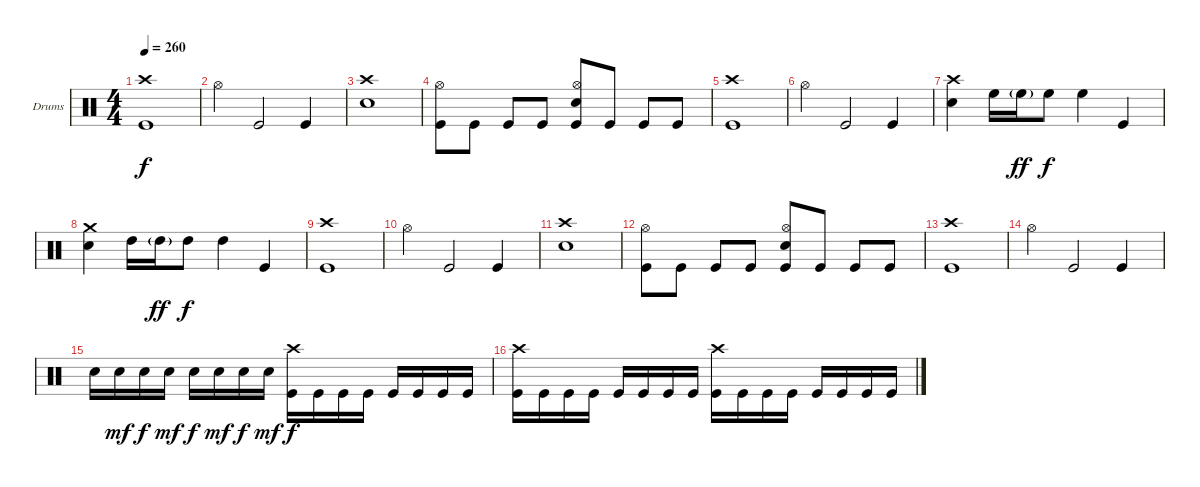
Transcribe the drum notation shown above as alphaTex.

\bracketExtendMode groupsimilarinstruments
\firstSystemTrackNameOrientation horizontal
\otherSystemsTrackNameOrientation horizontal
\track ("Drumkit" "Drums") {instrument percussion}
\staff {score}
\articulation defaults
\ts (4 4)
\tempo 260
\clef neutral
\ks c
("Crash high (hit)" "Kick (hit)").1{dy f} |
"Hi-Hat (open)".4 "Kick (hit)".2 "Kick (hit)".4 |
("Crash high (hit)" "Snare (hit) 2").1 |
("Hi-Hat (open)" "Kick (hit)").8 "Kick (hit)".8 "Kick (hit)".8 "Kick (hit)".8 ("Hi-Hat (open)" "Snare (hit) 2" "Kick (hit)").8 "Kick (hit)".8 "Kick (hit)".8 "Kick (hit)".8 |
("Crash high (hit)" "Kick (hit)").1 |
"Hi-Hat (open)".4 "Kick (hit)".2 "Kick (hit)".4 |
("Crash high (hit)" "Snare (hit) 2").4 "High Floor Tom (hit)".16 "High Floor Tom (hit)"{g}.16{dy ff} "High Floor Tom (hit)".8{dy f} "High Floor Tom (hit)".4 "Kick (hit)".4 |
("Crash medium (hit)" "Snare (hit) 2").4 "High Tom (hit)".16 "High Tom (hit)"{g}.16{dy ff} "High Tom (hit)".8{dy f} "High Tom (hit)".4 "Kick (hit)".4 |
("Crash high (hit)" "Kick (hit)").1 |
"Hi-Hat (open)".4 "Kick (hit)".2 "Kick (hit)".4 |
("Crash high (hit)" "Snare (hit) 2").1 |
("Hi-Hat (open)" "Kick (hit)").8 "Kick (hit)".8 "Kick (hit)".8 "Kick (hit)".8 ("Hi-Hat (open)" "Snare (hit) 2" "Kick (hit)").8 "Kick (hit)".8 "Kick (hit)".8 "Kick (hit)".8 |
("Crash high (hit)" "Kick (hit)").1 |
"Hi-Hat (open)".4 "Kick (hit)".2 "Kick (hit)".4 |
"Snare (hit) 2".16 "Snare (hit) 2".16{dy mf} "Snare (hit) 2".16{dy f} "Snare (hit) 2".16{dy mf} "Snare (hit) 2".16{dy f} "Snare (hit) 2".16{dy mf} "Snare (hit) 2".16{dy f} "Snare (hit) 2".16{dy mf} ("Crash high (hit)" "Kick (hit)").16{dy f} "Kick (hit)".16 "Kick (hit)".16 "Kick (hit)".16 "Kick (hit)".16 "Kick (hit)".16 "Kick (hit)".16 "Kick (hit)".16 |
("Crash high (hit)" "Kick (hit)").16 "Kick (hit)".16 "Kick (hit)".16 "Kick (hit)".16 "Kick (hit)".16 "Kick (hit)".16 "Kick (hit)".16 "Kick (hit)".16 ("Crash high (hit)" "Kick (hit)").16 "Kick (hit)".16 "Kick (hit)".16 "Kick (hit)".16 "Kick (hit)".16 "Kick (hit)".16 "Kick (hit)".16 "Kick (hit)".16
